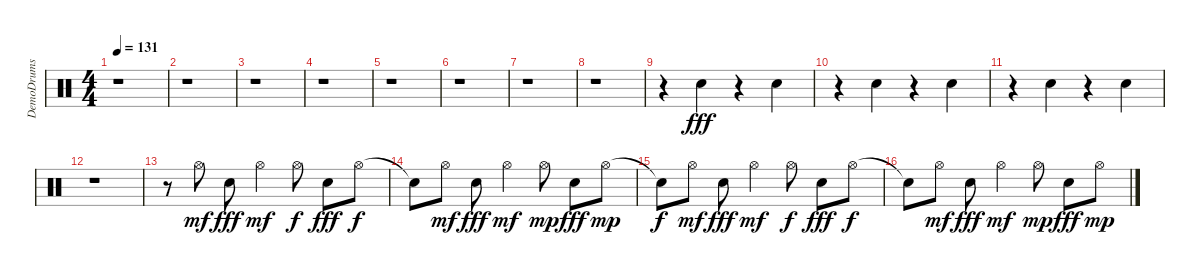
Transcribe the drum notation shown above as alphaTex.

\track ("DemoDrums" "DemoDrums") {instrument percussion}
\staff {score}
\articulation defaults
\ts (4 4)
\tempo 131
\clef neutral
\ks c
r.1{dy fff} |
r.1 |
r.1 |
r.1 |
r.1 |
r.1 |
r.1 |
r.1 |
r.4 "Electric Snare (hit)".4 r.4 "Electric Snare (hit)".4 |
r.4 "Electric Snare (hit)".4 r.4 "Electric Snare (hit)".4 |
r.4 "Electric Snare (hit)".4 r.4 "Electric Snare (hit)".4 |
r.1 |
r.8 "Hi-Hat (open)".8{dy mf} "Electric Snare (hit)".8{dy fff} "Hi-Hat (open)".4{dy mf} "Hi-Hat (open)".8{dy f} "Electric Snare (hit)".8{dy fff} "Hi-Hat (open)".8{dy f} |
"Snare (hit)"{t}.8 "Hi-Hat (open)".8{dy mf} "Electric Snare (hit)".8{dy fff} "Hi-Hat (open)".4{dy mf} "Hi-Hat (open)".8{dy mp} "Electric Snare (hit)".8{dy fff} "Hi-Hat (open)".8{dy mp} |
"Snare (hit)"{t}.8{dy f} "Hi-Hat (open)".8{dy mf} "Electric Snare (hit)".8{dy fff} "Hi-Hat (open)".4{dy mf} "Hi-Hat (open)".8{dy f} "Electric Snare (hit)".8{dy fff} "Hi-Hat (open)".8{dy f} |
"Snare (hit)"{t}.8 "Hi-Hat (open)".8{dy mf} "Electric Snare (hit)".8{dy fff} "Hi-Hat (open)".4{dy mf} "Hi-Hat (open)".8{dy mp} "Electric Snare (hit)".8{dy fff} "Hi-Hat (open)".8{dy mp}
